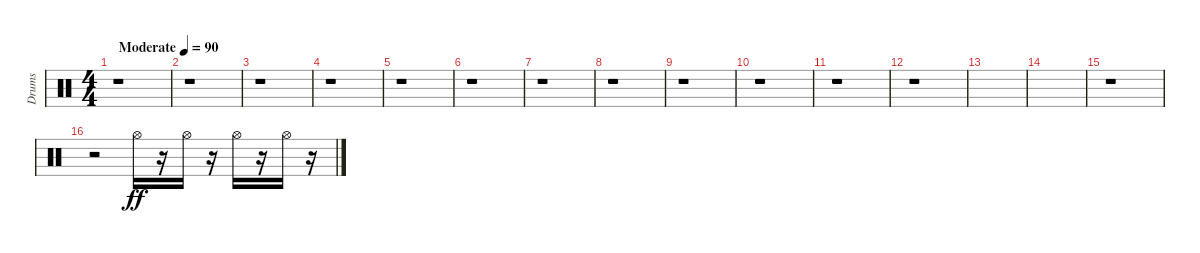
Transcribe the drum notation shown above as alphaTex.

\track ("Drums" "Drums") {instrument percussion}
\staff {score}
\articulation defaults
\ts (4 4)
\tempo (90 "Moderate")
\clef neutral
\ks c
r.1{dy ff} |
r.1 |
r.1 |
r.1 |
r.1 |
r.1 |
r.1 |
r.1 |
r.1 |
r.1 |
r.1 |
r.1 |
|
|
r.1 |
r.2 "Hi-Hat (open)".16 r.16 "Hi-Hat (open)".16 r.16 "Hi-Hat (open)".16 r.16 "Hi-Hat (open)".16 r.16
